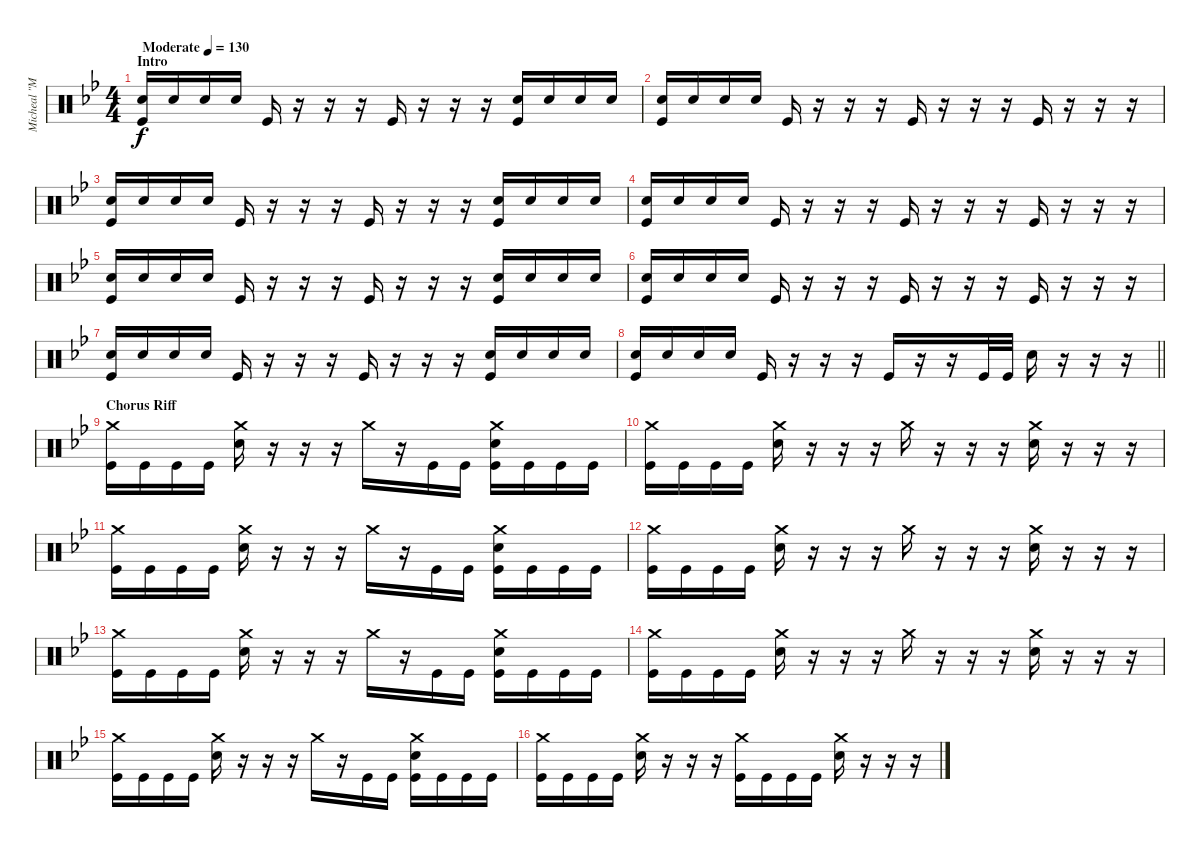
\track ("Micheal \"Moose\" Thomas" "Micheal \"M") {instrument percussion}
\staff {score}
\articulation defaults
\ts (4 4)
\section ("" "Intro")
\tempo (130 "Moderate")
\clef neutral
\ks bb
("Snare (hit) 2" "Kick (hit)").16{dy f} "Snare (hit) 2".16 "Snare (hit) 2".16 "Snare (hit) 2".16 "Kick (hit)".16 r.16 r.16 r.16 "Kick (hit)".16 r.16 r.16 r.16 ("Snare (hit) 2" "Kick (hit)").16 "Snare (hit) 2".16 "Snare (hit) 2".16 "Snare (hit) 2".16 |
("Snare (hit) 2" "Kick (hit)").16 "Snare (hit) 2".16 "Snare (hit) 2".16 "Snare (hit) 2".16 "Kick (hit)".16 r.16 r.16 r.16 "Kick (hit)".16 r.16 r.16 r.16 "Kick (hit)".16 r.16 r.16 r.16 |
("Snare (hit) 2" "Kick (hit)").16 "Snare (hit) 2".16 "Snare (hit) 2".16 "Snare (hit) 2".16 "Kick (hit)".16 r.16 r.16 r.16 "Kick (hit)".16 r.16 r.16 r.16 ("Snare (hit) 2" "Kick (hit)").16 "Snare (hit) 2".16 "Snare (hit) 2".16 "Snare (hit) 2".16 |
("Snare (hit) 2" "Kick (hit)").16 "Snare (hit) 2".16 "Snare (hit) 2".16 "Snare (hit) 2".16 "Kick (hit)".16 r.16 r.16 r.16 "Kick (hit)".16 r.16 r.16 r.16 "Kick (hit)".16 r.16 r.16 r.16 |
("Snare (hit) 2" "Kick (hit)").16 "Snare (hit) 2".16 "Snare (hit) 2".16 "Snare (hit) 2".16 "Kick (hit)".16 r.16 r.16 r.16 "Kick (hit)".16 r.16 r.16 r.16 ("Snare (hit) 2" "Kick (hit)").16 "Snare (hit) 2".16 "Snare (hit) 2".16 "Snare (hit) 2".16 |
("Snare (hit) 2" "Kick (hit)").16 "Snare (hit) 2".16 "Snare (hit) 2".16 "Snare (hit) 2".16 "Kick (hit)".16 r.16 r.16 r.16 "Kick (hit)".16 r.16 r.16 r.16 "Kick (hit)".16 r.16 r.16 r.16 |
("Snare (hit) 2" "Kick (hit)").16 "Snare (hit) 2".16 "Snare (hit) 2".16 "Snare (hit) 2".16 "Kick (hit)".16 r.16 r.16 r.16 "Kick (hit)".16 r.16 r.16 r.16 ("Snare (hit) 2" "Kick (hit)").16 "Snare (hit) 2".16 "Snare (hit) 2".16 "Snare (hit) 2".16 |
\barLineRight lightlight
("Snare (hit) 2" "Kick (hit)").16 "Snare (hit) 2".16 "Snare (hit) 2".16 "Snare (hit) 2".16 "Kick (hit)".16 r.16 r.16 r.16 "Kick (hit)".16 r.16 r.16 "Kick (hit)".32 "Kick (hit)".32 "Snare (hit) 2".16 r.16 r.16 r.16 |
\section ("" "Chorus Riff")
("Crash medium (hit)" "Kick (hit)").16 "Kick (hit)".16 "Kick (hit)".16 "Kick (hit)".16 ("Crash medium (hit)" "Snare (hit) 2").16 r.16 r.16 r.16 "Crash medium (hit)".16 r.16 "Kick (hit)".16 "Kick (hit)".16 ("Crash medium (hit)" "Snare (hit) 2" "Kick (hit)").16 "Kick (hit)".16 "Kick (hit)".16 "Kick (hit)".16 |
("Crash medium (hit)" "Kick (hit)").16 "Kick (hit)".16 "Kick (hit)".16 "Kick (hit)".16 ("Crash medium (hit)" "Snare (hit) 2").16 r.16 r.16 r.16 "Crash medium (hit)".16 r.16 r.16 r.16 ("Crash medium (hit)" "Snare (hit) 2").16 r.16 r.16 r.16 |
("Crash medium (hit)" "Kick (hit)").16 "Kick (hit)".16 "Kick (hit)".16 "Kick (hit)".16 ("Crash medium (hit)" "Snare (hit) 2").16 r.16 r.16 r.16 "Crash medium (hit)".16 r.16 "Kick (hit)".16 "Kick (hit)".16 ("Crash medium (hit)" "Snare (hit) 2" "Kick (hit)").16 "Kick (hit)".16 "Kick (hit)".16 "Kick (hit)".16 |
("Crash medium (hit)" "Kick (hit)").16 "Kick (hit)".16 "Kick (hit)".16 "Kick (hit)".16 ("Crash medium (hit)" "Snare (hit) 2").16 r.16 r.16 r.16 "Crash medium (hit)".16 r.16 r.16 r.16 ("Crash medium (hit)" "Snare (hit) 2").16 r.16 r.16 r.16 |
("Crash medium (hit)" "Kick (hit)").16 "Kick (hit)".16 "Kick (hit)".16 "Kick (hit)".16 ("Crash medium (hit)" "Snare (hit) 2").16 r.16 r.16 r.16 "Crash medium (hit)".16 r.16 "Kick (hit)".16 "Kick (hit)".16 ("Crash medium (hit)" "Snare (hit) 2" "Kick (hit)").16 "Kick (hit)".16 "Kick (hit)".16 "Kick (hit)".16 |
("Crash medium (hit)" "Kick (hit)").16 "Kick (hit)".16 "Kick (hit)".16 "Kick (hit)".16 ("Crash medium (hit)" "Snare (hit) 2").16 r.16 r.16 r.16 "Crash medium (hit)".16 r.16 r.16 r.16 ("Crash medium (hit)" "Snare (hit) 2").16 r.16 r.16 r.16 |
("Crash medium (hit)" "Kick (hit)").16 "Kick (hit)".16 "Kick (hit)".16 "Kick (hit)".16 ("Crash medium (hit)" "Snare (hit) 2").16 r.16 r.16 r.16 "Crash medium (hit)".16 r.16 "Kick (hit)".16 "Kick (hit)".16 ("Crash medium (hit)" "Snare (hit) 2" "Kick (hit)").16 "Kick (hit)".16 "Kick (hit)".16 "Kick (hit)".16 |
("Crash medium (hit)" "Kick (hit)").16 "Kick (hit)".16 "Kick (hit)".16 "Kick (hit)".16 ("Crash medium (hit)" "Snare (hit) 2").16 r.16 r.16 r.16 ("Crash medium (hit)" "Kick (hit)").16 "Kick (hit)".16 "Kick (hit)".16 "Kick (hit)".16 ("Crash medium (hit)" "Snare (hit) 2").16 r.16 r.16 r.16
